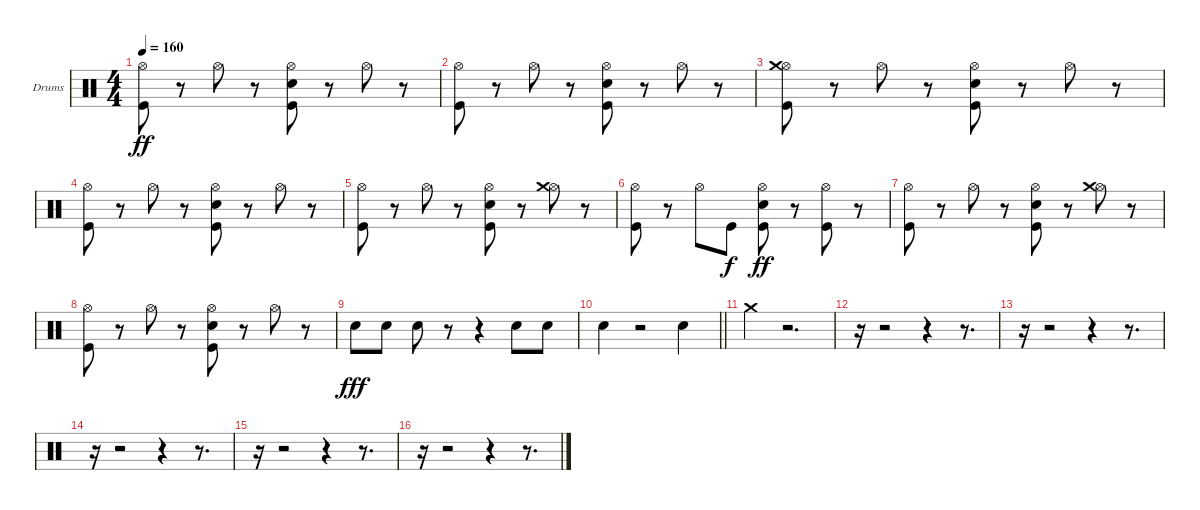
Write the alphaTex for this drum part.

\bracketExtendMode groupsimilarinstruments
\firstSystemTrackNameOrientation horizontal
\otherSystemsTrackNameOrientation horizontal
\track ("Drumkit" "Drums") {instrument percussion}
\staff {score}
\articulation defaults
\ts (4 4)
\tempo 160
\clef neutral
\ks c
("Hi-Hat (open)" "Kick (hit)").8{dy ff} r.8 "Hi-Hat (open)".8 r.8 ("Hi-Hat (open)" "Snare (hit) 2" "Kick (hit)").8 r.8 "Hi-Hat (open)".8 r.8 |
("Hi-Hat (open)" "Kick (hit)").8 r.8 "Hi-Hat (open)".8 r.8 ("Hi-Hat (open)" "Snare (hit) 2" "Kick (hit)").8 r.8 "Hi-Hat (open)".8 r.8 |
("Hi-Hat (open)" "Crash medium (hit)" "Kick (hit)").8 r.8 "Hi-Hat (open)".8 r.8 ("Hi-Hat (open)" "Snare (hit) 2" "Kick (hit)").8 r.8 "Hi-Hat (open)".8 r.8 |
("Hi-Hat (open)" "Kick (hit)").8 r.8 "Hi-Hat (open)".8 r.8 ("Hi-Hat (open)" "Snare (hit) 2" "Kick (hit)").8 r.8 "Hi-Hat (open)".8 r.8 |
("Hi-Hat (open)" "Kick (hit)").8 r.8 "Hi-Hat (open)".8 r.8 ("Hi-Hat (open)" "Snare (hit) 2" "Kick (hit)").8 r.8 ("Hi-Hat (open)" "Crash medium (hit)").8 r.8 |
("Hi-Hat (open)" "Kick (hit)").8 r.8 "Hi-Hat (open)".8 "Kick (hit)".8{dy f} ("Hi-Hat (open)" "Snare (hit) 2" "Kick (hit)").8{dy ff} r.8 ("Hi-Hat (open)" "Kick (hit)").8 r.8 |
("Hi-Hat (open)" "Kick (hit)").8 r.8 "Hi-Hat (open)".8 r.8 ("Hi-Hat (open)" "Snare (hit) 2" "Kick (hit)").8 r.8 ("Hi-Hat (open)" "Crash medium (hit)").8 r.8 |
("Hi-Hat (open)" "Kick (hit)").8 r.8 "Hi-Hat (open)".8 r.8 ("Hi-Hat (open)" "Snare (hit) 2" "Kick (hit)").8 r.8 "Hi-Hat (open)".8 r.8 |
"Snare (hit) 2".8{dy fff} "Snare (hit) 2".8 "Snare (hit) 2".8 r.8 r.4 "Snare (hit) 2".8 "Snare (hit) 2".8 |
\barLineRight lightlight "Snare (hit) 2".4
r.2 "Snare (hit) 2".4 |
"Crash medium (hit)".4 r.2{d} |
r.16 r.2 r.4 r.8{d} |
r.16 r.2 r.4 r.8{d} |
r.16 r.2 r.4 r.8{d} |
r.16 r.2 r.4 r.8{d} |
r.16 r.2 r.4 r.8{d}
